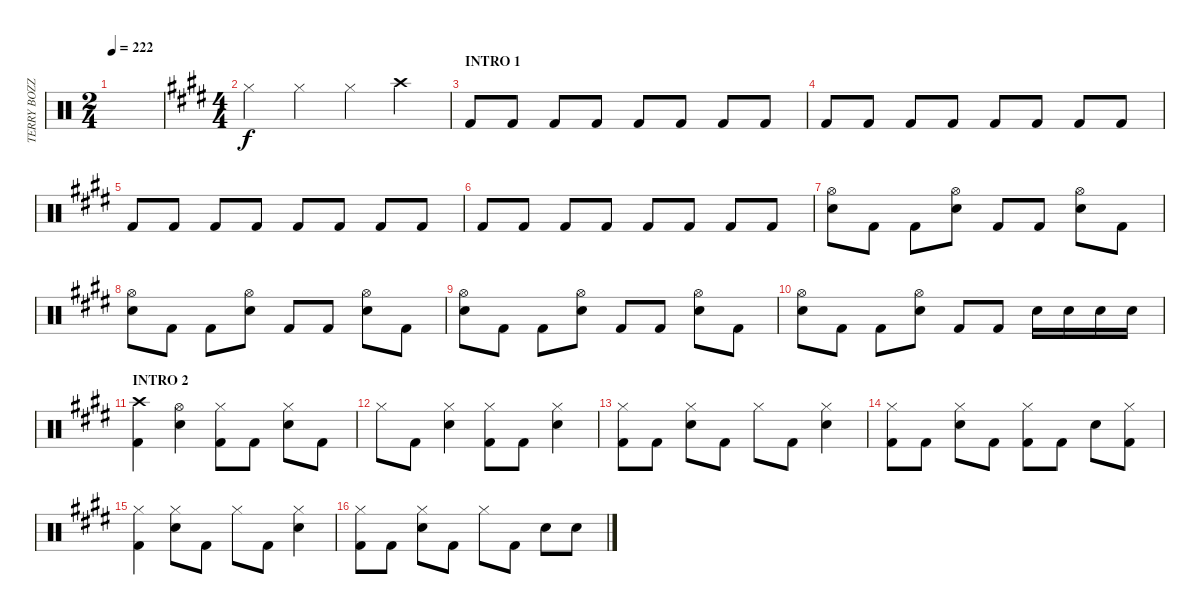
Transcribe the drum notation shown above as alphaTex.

\track ("TERRY BOZZIO" "TERRY BOZZ") {instrument percussion}
\staff {score}
\articulation defaults
\ts (2 4)
\tempo 222
\clef neutral
\ks c
|
\ts (4 4)
\ks c#minor "Hi-Hat (closed)".4 "Hi-Hat (closed)".4 "Hi-Hat (closed)".4 "Crash high (hit)".4
|
\section ("" "INTRO 1")
"Kick (hit) 2".8 "Kick (hit) 2".8 "Kick (hit) 2".8 "Kick (hit) 2".8 "Kick (hit) 2".8 "Kick (hit) 2".8 "Kick (hit) 2".8 "Kick (hit) 2".8 |
"Kick (hit) 2".8 "Kick (hit) 2".8 "Kick (hit) 2".8 "Kick (hit) 2".8 "Kick (hit) 2".8 "Kick (hit) 2".8 "Kick (hit) 2".8 "Kick (hit) 2".8 |
"Kick (hit) 2".8 "Kick (hit) 2".8 "Kick (hit) 2".8 "Kick (hit) 2".8 "Kick (hit) 2".8 "Kick (hit) 2".8 "Kick (hit) 2".8 "Kick (hit) 2".8 |
"Kick (hit) 2".8 "Kick (hit) 2".8 "Kick (hit) 2".8 "Kick (hit) 2".8 "Kick (hit) 2".8 "Kick (hit) 2".8 "Kick (hit) 2".8 "Kick (hit) 2".8 |
("Hi-Hat (open)" "Snare (hit) 2").8 "Kick (hit) 2".8 "Kick (hit) 2".8 ("Hi-Hat (open)" "Snare (hit) 2").8 "Kick (hit) 2".8 "Kick (hit) 2".8 ("Hi-Hat (open)" "Snare (hit) 2").8 "Kick (hit) 2".8 |
("Hi-Hat (open)" "Snare (hit) 2").8 "Kick (hit) 2".8 "Kick (hit) 2".8 ("Hi-Hat (open)" "Snare (hit) 2").8 "Kick (hit) 2".8 "Kick (hit) 2".8 ("Hi-Hat (open)" "Snare (hit) 2").8 "Kick (hit) 2".8 |
("Hi-Hat (open)" "Snare (hit) 2").8 "Kick (hit) 2".8 "Kick (hit) 2".8 ("Hi-Hat (open)" "Snare (hit) 2").8 "Kick (hit) 2".8 "Kick (hit) 2".8 ("Hi-Hat (open)" "Snare (hit) 2").8 "Kick (hit) 2".8 |
("Hi-Hat (open)" "Snare (hit) 2").8 "Kick (hit) 2".8 "Kick (hit) 2".8 ("Hi-Hat (open)" "Snare (hit) 2").8 "Kick (hit) 2".8 "Kick (hit) 2".8 "Snare (hit) 2".16 "Snare (hit) 2".16 "Snare (hit) 2".16 "Snare (hit) 2".16 |
\section ("" "INTRO 2")
("Crash high (hit)" "Kick (hit) 2").4 ("Hi-Hat (open)" "Snare (hit) 2").4 ("Hi-Hat (closed)" "Kick (hit) 2").8 "Kick (hit) 2".8 ("Hi-Hat (closed)" "Snare (hit) 2").8 "Kick (hit) 2".8 |
"Hi-Hat (closed)".8 "Kick (hit) 2".8 ("Hi-Hat (closed)" "Snare (hit) 2").4 ("Hi-Hat (closed)" "Kick (hit) 2").8 "Kick (hit) 2".8 ("Hi-Hat (closed)" "Snare (hit) 2").4 |
("Hi-Hat (closed)" "Kick (hit) 2").8 "Kick (hit) 2".8 ("Hi-Hat (closed)" "Snare (hit) 2").8 "Kick (hit) 2".8 "Hi-Hat (closed)".8 "Kick (hit) 2".8 ("Hi-Hat (closed)" "Snare (hit) 2").4 |
("Hi-Hat (closed)" "Kick (hit) 2").8 "Kick (hit) 2".8 ("Hi-Hat (closed)" "Snare (hit) 2").8 "Kick (hit) 2".8 ("Hi-Hat (closed)" "Kick (hit) 2").8 "Kick (hit) 2".8 "Snare (hit) 2".8 ("Hi-Hat (closed)" "Kick (hit) 2").8 |
("Hi-Hat (closed)" "Kick (hit) 2").4 ("Hi-Hat (closed)" "Snare (hit) 2").8 "Kick (hit) 2".8 "Hi-Hat (closed)".8 "Kick (hit) 2".8 ("Hi-Hat (closed)" "Snare (hit) 2").4 |
("Hi-Hat (closed)" "Kick (hit) 2").8 "Kick (hit) 2".8 ("Hi-Hat (closed)" "Snare (hit) 2").8 "Kick (hit) 2".8 "Hi-Hat (closed)".8 "Kick (hit) 2".8 "Snare (hit) 2".8 "Snare (hit) 2".8
